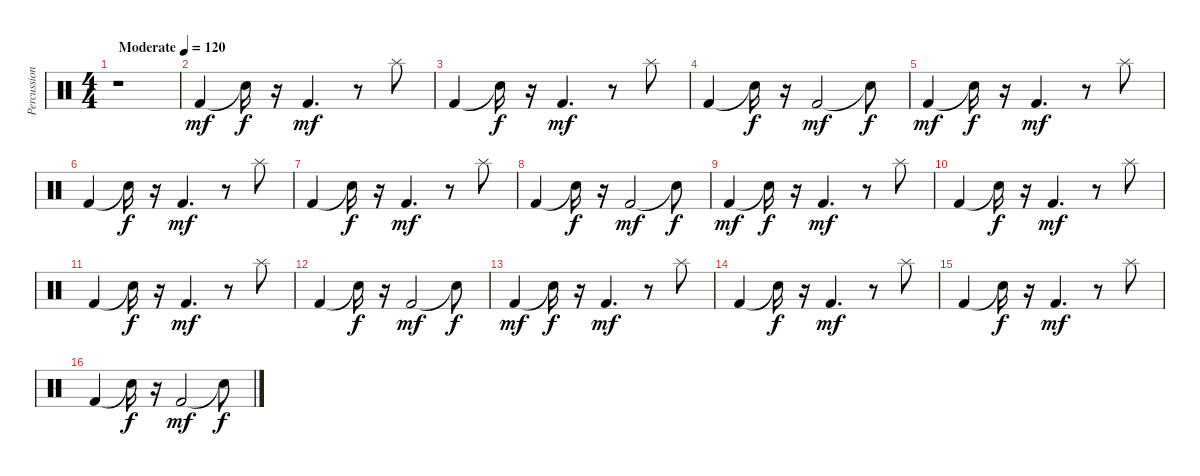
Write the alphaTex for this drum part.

\track ("Percussions" "Percussion") {instrument percussion}
\staff {score}
\articulation defaults
\ts (4 4)
\tempo (120 "Moderate")
\tempo 100
\tempo (120 "Moderate")
\clef neutral
\ks c
r.1{dy mf} |
"Kick (hit) 2".4 "Snare (hit)"{t}.16{dy f} r.16 "Kick (hit) 2".4{d dy mf} r.8 "Splash (hit)".8 |
"Kick (hit) 2".4 "Snare (hit)"{t}.16{dy f} r.16 "Kick (hit) 2".4{d dy mf} r.8 "Splash (hit)".8 |
"Kick (hit) 2".4 "Snare (hit)"{t}.16{dy f} r.16 "Kick (hit) 2".2{dy mf} "Snare (hit)"{t}.8{dy f} |
"Kick (hit) 2".4{dy mf} "Snare (hit)"{t}.16{dy f} r.16 "Kick (hit) 2".4{d dy mf} r.8 "Splash (hit)".8 |
"Kick (hit) 2".4 "Snare (hit)"{t}.16{dy f} r.16 "Kick (hit) 2".4{d dy mf} r.8 "Splash (hit)".8 |
"Kick (hit) 2".4 "Snare (hit)"{t}.16{dy f} r.16 "Kick (hit) 2".4{d dy mf} r.8 "Splash (hit)".8 |
"Kick (hit) 2".4 "Snare (hit)"{t}.16{dy f} r.16 "Kick (hit) 2".2{dy mf} "Snare (hit)"{t}.8{dy f} |
"Kick (hit) 2".4{dy mf} "Snare (hit)"{t}.16{dy f} r.16 "Kick (hit) 2".4{d dy mf} r.8 "Splash (hit)".8 |
"Kick (hit) 2".4 "Snare (hit)"{t}.16{dy f} r.16 "Kick (hit) 2".4{d dy mf} r.8 "Splash (hit)".8 |
"Kick (hit) 2".4 "Snare (hit)"{t}.16{dy f} r.16 "Kick (hit) 2".4{d dy mf} r.8 "Splash (hit)".8 |
"Kick (hit) 2".4 "Snare (hit)"{t}.16{dy f} r.16 "Kick (hit) 2".2{dy mf} "Snare (hit)"{t}.8{dy f} |
"Kick (hit) 2".4{dy mf} "Snare (hit)"{t}.16{dy f} r.16 "Kick (hit) 2".4{d dy mf} r.8 "Splash (hit)".8 |
"Kick (hit) 2".4 "Snare (hit)"{t}.16{dy f} r.16 "Kick (hit) 2".4{d dy mf} r.8 "Splash (hit)".8 |
"Kick (hit) 2".4 "Snare (hit)"{t}.16{dy f} r.16 "Kick (hit) 2".4{d dy mf} r.8 "Splash (hit)".8 |
"Kick (hit) 2".4 "Snare (hit)"{t}.16{dy f} r.16 "Kick (hit) 2".2{dy mf} "Snare (hit)"{t}.8{dy f}
